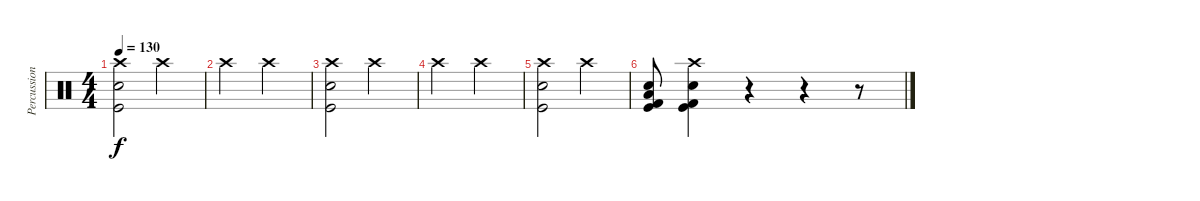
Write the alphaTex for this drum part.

\track ("Percussion" "Percussion") {instrument percussion}
\staff {score}
\articulation defaults
\ts (4 4)
\tempo 130
\clef neutral
\ks c
("Crash high (hit)" "Snare (hit) 2" "Kick (hit)").2{dy f} "Crash high (hit)".2 |
"Crash high (hit)".2 "Crash high (hit)".2 |
("Crash high (hit)" "Snare (hit) 2" "Kick (hit)").2 "Crash high (hit)".2 |
"Crash high (hit)".2 "Crash high (hit)".2 |
("Crash high (hit)" "Snare (hit) 2" "Kick (hit)").2 "Crash high (hit)".2 |
("Low Tom (hit)" "Kick (hit) 2" "Snare (hit) 2" "Kick (hit)").8 ("Crash high (hit)" "Kick (hit) 2" "Snare (hit) 2" "Kick (hit)").4 r.4 r.4 r.8
